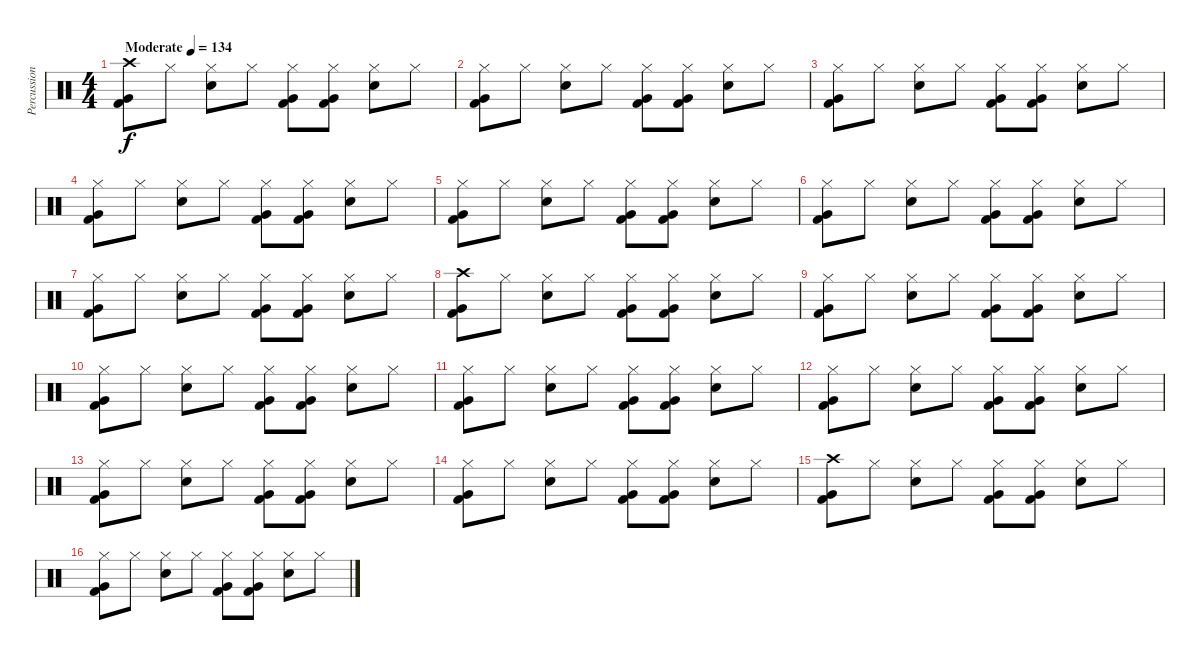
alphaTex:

\track ("Percussion" "Percussion") {instrument percussion}
\staff {score}
\articulation defaults
\ts (4 4)
\tempo (134 "Moderate")
\clef neutral
\ks c
("Crash high (hit)" "Very Low Tom (hit)" "Kick (hit) 2").8{dy f} "Hi-Hat (closed)".8 ("Hi-Hat (closed)" "Electric Snare (hit)").8 "Hi-Hat (closed)".8 ("Hi-Hat (closed)" "Very Low Tom (hit)" "Kick (hit) 2").8 ("Hi-Hat (closed)" "Very Low Tom (hit)" "Kick (hit) 2").8 ("Hi-Hat (closed)" "Electric Snare (hit)").8 "Hi-Hat (closed)".8 |
("Hi-Hat (closed)" "Very Low Tom (hit)" "Kick (hit) 2").8 "Hi-Hat (closed)".8 ("Hi-Hat (closed)" "Electric Snare (hit)").8 "Hi-Hat (closed)".8 ("Hi-Hat (closed)" "Very Low Tom (hit)" "Kick (hit) 2").8 ("Hi-Hat (closed)" "Very Low Tom (hit)" "Kick (hit) 2").8 ("Hi-Hat (closed)" "Electric Snare (hit)").8 "Hi-Hat (closed)".8 |
("Hi-Hat (closed)" "Very Low Tom (hit)" "Kick (hit) 2").8 "Hi-Hat (closed)".8 ("Hi-Hat (closed)" "Electric Snare (hit)").8 "Hi-Hat (closed)".8 ("Hi-Hat (closed)" "Very Low Tom (hit)" "Kick (hit) 2").8 ("Hi-Hat (closed)" "Very Low Tom (hit)" "Kick (hit) 2").8 ("Hi-Hat (closed)" "Electric Snare (hit)").8 "Hi-Hat (closed)".8 |
("Hi-Hat (closed)" "Very Low Tom (hit)" "Kick (hit) 2").8 "Hi-Hat (closed)".8 ("Hi-Hat (closed)" "Electric Snare (hit)").8 "Hi-Hat (closed)".8 ("Hi-Hat (closed)" "Very Low Tom (hit)" "Kick (hit) 2").8 ("Hi-Hat (closed)" "Very Low Tom (hit)" "Kick (hit) 2").8 ("Hi-Hat (closed)" "Electric Snare (hit)").8 "Hi-Hat (closed)".8 |
("Hi-Hat (closed)" "Very Low Tom (hit)" "Kick (hit) 2").8 "Hi-Hat (closed)".8 ("Hi-Hat (closed)" "Electric Snare (hit)").8 "Hi-Hat (closed)".8 ("Hi-Hat (closed)" "Very Low Tom (hit)" "Kick (hit) 2").8 ("Hi-Hat (closed)" "Very Low Tom (hit)" "Kick (hit) 2").8 ("Hi-Hat (closed)" "Electric Snare (hit)").8 "Hi-Hat (closed)".8 |
("Hi-Hat (closed)" "Very Low Tom (hit)" "Kick (hit) 2").8 "Hi-Hat (closed)".8 ("Hi-Hat (closed)" "Electric Snare (hit)").8 "Hi-Hat (closed)".8 ("Hi-Hat (closed)" "Very Low Tom (hit)" "Kick (hit) 2").8 ("Hi-Hat (closed)" "Very Low Tom (hit)" "Kick (hit) 2").8 ("Hi-Hat (closed)" "Electric Snare (hit)").8 "Hi-Hat (closed)".8 |
("Hi-Hat (closed)" "Very Low Tom (hit)" "Kick (hit) 2").8 "Hi-Hat (closed)".8 ("Hi-Hat (closed)" "Electric Snare (hit)").8 "Hi-Hat (closed)".8 ("Hi-Hat (closed)" "Very Low Tom (hit)" "Kick (hit) 2").8 ("Hi-Hat (closed)" "Very Low Tom (hit)" "Kick (hit) 2").8 ("Hi-Hat (closed)" "Electric Snare (hit)").8 "Hi-Hat (closed)".8 |
("Crash high (hit)" "Very Low Tom (hit)" "Kick (hit) 2").8 "Hi-Hat (closed)".8 ("Hi-Hat (closed)" "Electric Snare (hit)").8 "Hi-Hat (closed)".8 ("Hi-Hat (closed)" "Very Low Tom (hit)" "Kick (hit) 2").8 ("Hi-Hat (closed)" "Very Low Tom (hit)" "Kick (hit) 2").8 ("Hi-Hat (closed)" "Electric Snare (hit)").8 "Hi-Hat (closed)".8 |
("Hi-Hat (closed)" "Very Low Tom (hit)" "Kick (hit) 2").8 "Hi-Hat (closed)".8 ("Hi-Hat (closed)" "Electric Snare (hit)").8 "Hi-Hat (closed)".8 ("Hi-Hat (closed)" "Very Low Tom (hit)" "Kick (hit) 2").8 ("Hi-Hat (closed)" "Very Low Tom (hit)" "Kick (hit) 2").8 ("Hi-Hat (closed)" "Electric Snare (hit)").8 "Hi-Hat (closed)".8 |
("Hi-Hat (closed)" "Very Low Tom (hit)" "Kick (hit) 2").8 "Hi-Hat (closed)".8 ("Hi-Hat (closed)" "Electric Snare (hit)").8 "Hi-Hat (closed)".8 ("Hi-Hat (closed)" "Very Low Tom (hit)" "Kick (hit) 2").8 ("Hi-Hat (closed)" "Very Low Tom (hit)" "Kick (hit) 2").8 ("Hi-Hat (closed)" "Electric Snare (hit)").8 "Hi-Hat (closed)".8 |
("Hi-Hat (closed)" "Very Low Tom (hit)" "Kick (hit) 2").8 "Hi-Hat (closed)".8 ("Hi-Hat (closed)" "Electric Snare (hit)").8 "Hi-Hat (closed)".8 ("Hi-Hat (closed)" "Very Low Tom (hit)" "Kick (hit) 2").8 ("Hi-Hat (closed)" "Very Low Tom (hit)" "Kick (hit) 2").8 ("Hi-Hat (closed)" "Electric Snare (hit)").8 "Hi-Hat (closed)".8 |
("Hi-Hat (closed)" "Very Low Tom (hit)" "Kick (hit) 2").8 "Hi-Hat (closed)".8 ("Hi-Hat (closed)" "Electric Snare (hit)").8 "Hi-Hat (closed)".8 ("Hi-Hat (closed)" "Very Low Tom (hit)" "Kick (hit) 2").8 ("Hi-Hat (closed)" "Very Low Tom (hit)" "Kick (hit) 2").8 ("Hi-Hat (closed)" "Electric Snare (hit)").8 "Hi-Hat (closed)".8 |
("Hi-Hat (closed)" "Very Low Tom (hit)" "Kick (hit) 2").8 "Hi-Hat (closed)".8 ("Hi-Hat (closed)" "Electric Snare (hit)").8 "Hi-Hat (closed)".8 ("Hi-Hat (closed)" "Very Low Tom (hit)" "Kick (hit) 2").8 ("Hi-Hat (closed)" "Very Low Tom (hit)" "Kick (hit) 2").8 ("Hi-Hat (closed)" "Electric Snare (hit)").8 "Hi-Hat (closed)".8 |
("Hi-Hat (closed)" "Very Low Tom (hit)" "Kick (hit) 2").8 "Hi-Hat (closed)".8 ("Hi-Hat (closed)" "Electric Snare (hit)").8 "Hi-Hat (closed)".8 ("Hi-Hat (closed)" "Very Low Tom (hit)" "Kick (hit) 2").8 ("Hi-Hat (closed)" "Very Low Tom (hit)" "Kick (hit) 2").8 ("Hi-Hat (closed)" "Electric Snare (hit)").8 "Hi-Hat (closed)".8 |
("Crash high (hit)" "Very Low Tom (hit)" "Kick (hit) 2").8 "Hi-Hat (closed)".8 ("Hi-Hat (closed)" "Electric Snare (hit)").8 "Hi-Hat (closed)".8 ("Hi-Hat (closed)" "Very Low Tom (hit)" "Kick (hit) 2").8 ("Hi-Hat (closed)" "Very Low Tom (hit)" "Kick (hit) 2").8 ("Hi-Hat (closed)" "Electric Snare (hit)").8 "Hi-Hat (closed)".8 |
("Hi-Hat (closed)" "Very Low Tom (hit)" "Kick (hit) 2").8 "Hi-Hat (closed)".8 ("Hi-Hat (closed)" "Electric Snare (hit)").8 "Hi-Hat (closed)".8 ("Hi-Hat (closed)" "Very Low Tom (hit)" "Kick (hit) 2").8 ("Hi-Hat (closed)" "Very Low Tom (hit)" "Kick (hit) 2").8 ("Hi-Hat (closed)" "Electric Snare (hit)").8 "Hi-Hat (closed)".8
